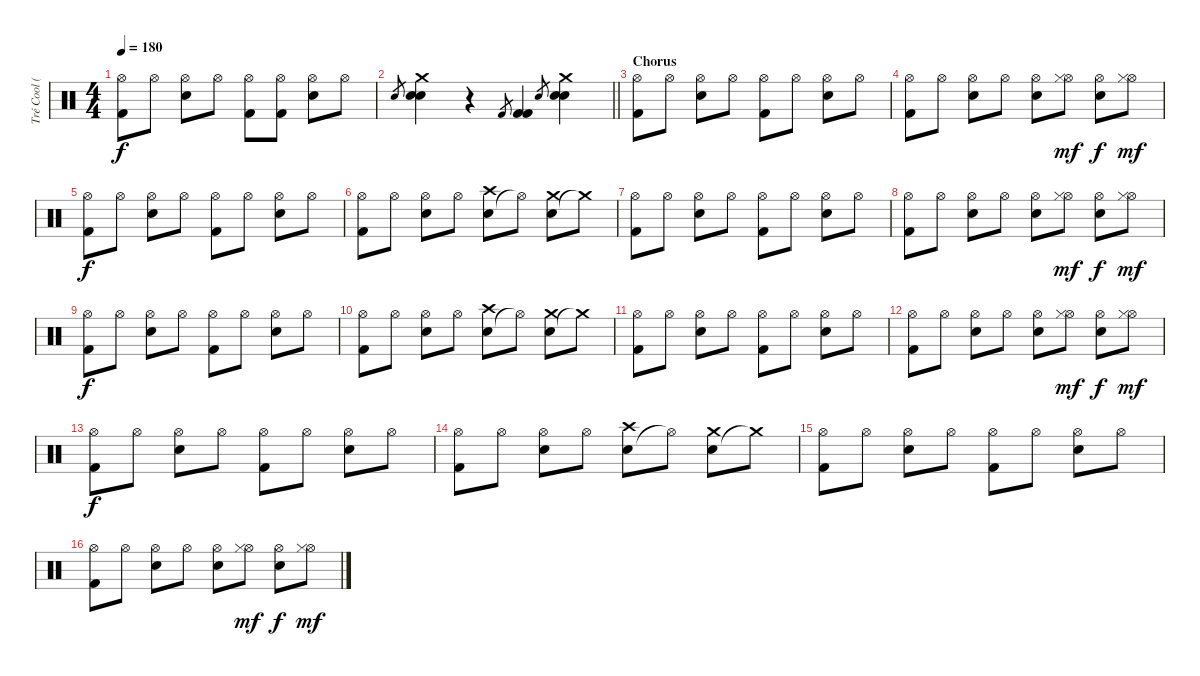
\track ("Tré Cool (Drums)" "Tré Cool (") {instrument percussion}
\staff {score}
\articulation defaults
\ts (4 4)
\tempo 180
\clef neutral
\ks c
("Kick (hit) 2" "Hi-Hat (open)").8{dy f} "Hi-Hat (open)".8 ("Snare (hit) 2" "Hi-Hat (open)").8 "Hi-Hat (open)".8 ("Kick (hit) 2" "Hi-Hat (open)").8 ("Kick (hit) 2" "Hi-Hat (open)").8 ("Snare (hit) 2" "Hi-Hat (open)").8 "Hi-Hat (open)".8 |
\barLineRight lightlight "Snare (hit) 2".8{gr}
("Snare (hit) 2" "Snare (hit) 2" "Crash medium (hit)").4 r.4 "Kick (hit) 2".8{gr} ("Kick (hit) 2" "Kick (hit) 2").4 "Snare (hit) 2".8{gr} ("Snare (hit) 2" "Snare (hit) 2" "Crash medium (hit)").4 |
\section ("" "Chorus")
("Kick (hit) 2" "Hi-Hat (open)").8 "Hi-Hat (open)".8 ("Snare (hit) 2" "Hi-Hat (open)").8 "Hi-Hat (open)".8 ("Kick (hit) 2" "Hi-Hat (open)").8 "Hi-Hat (open)".8 ("Snare (hit) 2" "Hi-Hat (open)").8 "Hi-Hat (open)".8 |
("Kick (hit) 2" "Hi-Hat (open)").8 "Hi-Hat (open)".8 ("Snare (hit) 2" "Hi-Hat (open)").8 "Hi-Hat (open)".8 ("Snare (hit) 2" "Hi-Hat (open)").8 ("Hi-Hat (open)" "Hi-Hat (closed)").8{dy mf} ("Snare (hit) 2" "Hi-Hat (open)").8{dy f} ("Hi-Hat (open)" "Hi-Hat (closed)").8{dy mf} |
("Kick (hit) 2" "Hi-Hat (open)").8{dy f} "Hi-Hat (open)".8 ("Snare (hit) 2" "Hi-Hat (open)").8 "Hi-Hat (open)".8 ("Kick (hit) 2" "Hi-Hat (open)").8 "Hi-Hat (open)".8 ("Snare (hit) 2" "Hi-Hat (open)").8 "Hi-Hat (open)".8 |
("Kick (hit) 2" "Hi-Hat (open)").8 "Hi-Hat (open)".8 ("Snare (hit) 2" "Hi-Hat (open)").8 "Hi-Hat (open)".8 ("Snare (hit) 2" "Crash high (hit)").8 "Hi-Hat (open)"{t}.8 ("Snare (hit) 2" "Crash medium (hit)").8 "Crash medium (hit)"{t}.8 |
("Kick (hit) 2" "Hi-Hat (open)").8 "Hi-Hat (open)".8 ("Snare (hit) 2" "Hi-Hat (open)").8 "Hi-Hat (open)".8 ("Kick (hit) 2" "Hi-Hat (open)").8 "Hi-Hat (open)".8 ("Snare (hit) 2" "Hi-Hat (open)").8 "Hi-Hat (open)".8 |
("Kick (hit) 2" "Hi-Hat (open)").8 "Hi-Hat (open)".8 ("Snare (hit) 2" "Hi-Hat (open)").8 "Hi-Hat (open)".8 ("Snare (hit) 2" "Hi-Hat (open)").8 ("Hi-Hat (open)" "Hi-Hat (closed)").8{dy mf} ("Snare (hit) 2" "Hi-Hat (open)").8{dy f} ("Hi-Hat (open)" "Hi-Hat (closed)").8{dy mf} |
("Kick (hit) 2" "Hi-Hat (open)").8{dy f} "Hi-Hat (open)".8 ("Snare (hit) 2" "Hi-Hat (open)").8 "Hi-Hat (open)".8 ("Kick (hit) 2" "Hi-Hat (open)").8 "Hi-Hat (open)".8 ("Snare (hit) 2" "Hi-Hat (open)").8 "Hi-Hat (open)".8 |
("Kick (hit) 2" "Hi-Hat (open)").8 "Hi-Hat (open)".8 ("Snare (hit) 2" "Hi-Hat (open)").8 "Hi-Hat (open)".8 ("Snare (hit) 2" "Crash high (hit)").8 "Hi-Hat (open)"{t}.8 ("Snare (hit) 2" "Crash medium (hit)").8 "Crash medium (hit)"{t}.8 |
("Kick (hit) 2" "Hi-Hat (open)").8 "Hi-Hat (open)".8 ("Snare (hit) 2" "Hi-Hat (open)").8 "Hi-Hat (open)".8 ("Kick (hit) 2" "Hi-Hat (open)").8 "Hi-Hat (open)".8 ("Snare (hit) 2" "Hi-Hat (open)").8 "Hi-Hat (open)".8 |
("Kick (hit) 2" "Hi-Hat (open)").8 "Hi-Hat (open)".8 ("Snare (hit) 2" "Hi-Hat (open)").8 "Hi-Hat (open)".8 ("Snare (hit) 2" "Hi-Hat (open)").8 ("Hi-Hat (open)" "Hi-Hat (closed)").8{dy mf} ("Snare (hit) 2" "Hi-Hat (open)").8{dy f} ("Hi-Hat (open)" "Hi-Hat (closed)").8{dy mf} |
("Kick (hit) 2" "Hi-Hat (open)").8{dy f} "Hi-Hat (open)".8 ("Snare (hit) 2" "Hi-Hat (open)").8 "Hi-Hat (open)".8 ("Kick (hit) 2" "Hi-Hat (open)").8 "Hi-Hat (open)".8 ("Snare (hit) 2" "Hi-Hat (open)").8 "Hi-Hat (open)".8 |
("Kick (hit) 2" "Hi-Hat (open)").8 "Hi-Hat (open)".8 ("Snare (hit) 2" "Hi-Hat (open)").8 "Hi-Hat (open)".8 ("Snare (hit) 2" "Crash high (hit)").8 "Hi-Hat (open)"{t}.8 ("Snare (hit) 2" "Crash medium (hit)").8 "Crash medium (hit)"{t}.8 |
("Kick (hit) 2" "Hi-Hat (open)").8 "Hi-Hat (open)".8 ("Snare (hit) 2" "Hi-Hat (open)").8 "Hi-Hat (open)".8 ("Kick (hit) 2" "Hi-Hat (open)").8 "Hi-Hat (open)".8 ("Snare (hit) 2" "Hi-Hat (open)").8 "Hi-Hat (open)".8 |
("Kick (hit) 2" "Hi-Hat (open)").8 "Hi-Hat (open)".8 ("Snare (hit) 2" "Hi-Hat (open)").8 "Hi-Hat (open)".8 ("Snare (hit) 2" "Hi-Hat (open)").8 ("Hi-Hat (open)" "Hi-Hat (closed)").8{dy mf} ("Snare (hit) 2" "Hi-Hat (open)").8{dy f} ("Hi-Hat (open)" "Hi-Hat (closed)").8{dy mf}
